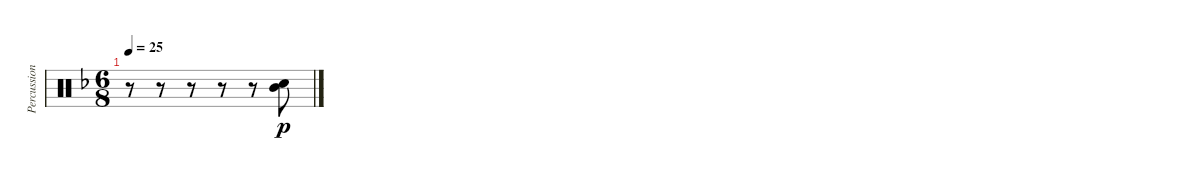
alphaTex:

\track ("Percussion" "Percussion") {instrument percussion}
\staff {score}
\articulation defaults
\ts (6 8)
\tempo 25
\clef neutral
\ks f
r.8{dy p} r.8 r.8 r.8 r.8 ("Mid Tom (hit)" "Snare (hit) 2").8
